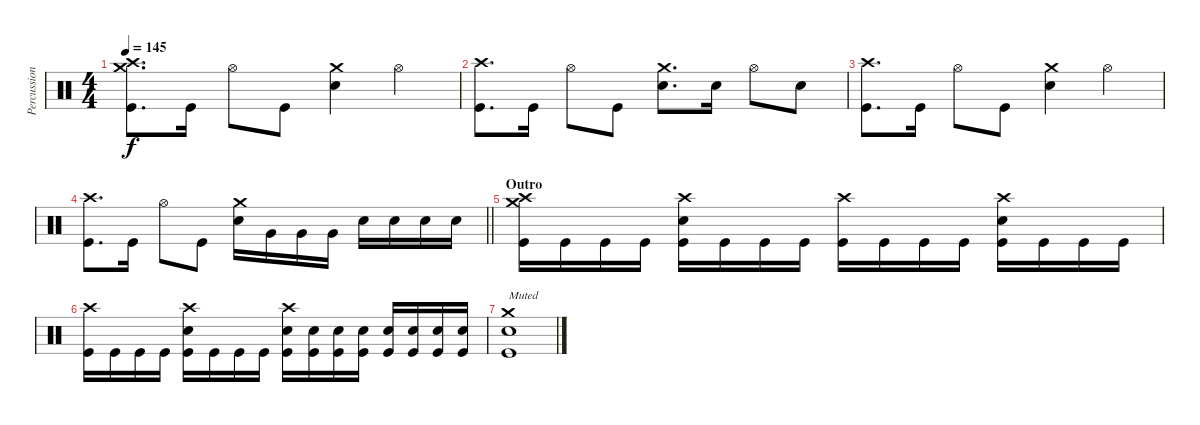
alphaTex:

\track ("Percussion" "Percussion") {instrument percussion}
\staff {score}
\articulation defaults
\ts (4 4)
\tempo 145
\clef neutral
\ks c
("Crash high (hit)" "Crash medium (hit)" "Kick (hit)").8{d dy f} "Kick (hit)".16 "Hi-Hat (open)".8 "Kick (hit)".8 ("Crash medium (hit)" "Electric Snare (hit)").4 "Hi-Hat (open)".4 |
("Crash high (hit)" "Kick (hit)").8{d} "Kick (hit)".16 "Hi-Hat (open)".8 "Kick (hit)".8 ("Crash medium (hit)" "Electric Snare (hit)").8{d} "Electric Snare (hit)".16 "Hi-Hat (open)".8 "Electric Snare (hit)".8 |
("Crash high (hit)" "Kick (hit)").8{d} "Kick (hit)".16 "Hi-Hat (open)".8 "Kick (hit)".8 ("Crash medium (hit)" "Electric Snare (hit)").4 "Hi-Hat (open)".4 |
\barLineRight lightlight
("Crash high (hit)" "Kick (hit)").8{d} "Kick (hit)".16 "Hi-Hat (open)".8 "Kick (hit)".8 ("Crash medium (hit)" "Electric Snare (hit)").16 "Very Low Tom (hit)".16 "Very Low Tom (hit)".16 "Very Low Tom (hit)".16 "Electric Snare (hit)".16 "Electric Snare (hit)".16 "Electric Snare (hit)".16 "Electric Snare (hit)".16 |
\section ("" "Outro")
("Crash medium (hit)" "Crash high (hit)" "Kick (hit)").16 "Kick (hit)".16 "Kick (hit)".16 "Kick (hit)".16 ("Crash high (hit)" "Electric Snare (hit)" "Kick (hit)").16 "Kick (hit)".16 "Kick (hit)".16 "Kick (hit)".16 ("Crash high (hit)" "Kick (hit)").16 "Kick (hit)".16 "Kick (hit)".16 "Kick (hit)".16 ("Crash high (hit)" "Electric Snare (hit)" "Kick (hit)").16 "Kick (hit)".16 "Kick (hit)".16 "Kick (hit)".16 |
("Crash high (hit)" "Kick (hit)").16 "Kick (hit)".16 "Kick (hit)".16 "Kick (hit)".16 ("Crash high (hit)" "Electric Snare (hit)" "Kick (hit)").16 "Kick (hit)".16 "Kick (hit)".16 "Kick (hit)".16 ("Crash high (hit)" "Electric Snare (hit)" "Kick (hit)").16 ("Electric Snare (hit)" "Kick (hit)").16 ("Electric Snare (hit)" "Kick (hit)").16 ("Electric Snare (hit)" "Kick (hit)").16 ("Electric Snare (hit)" "Kick (hit)").16 ("Electric Snare (hit)" "Kick (hit)").16 ("Electric Snare (hit)" "Kick (hit)").16 ("Electric Snare (hit)" "Kick (hit)").16 |
("Crash medium (hit)" "Electric Snare (hit)" "Kick (hit)").1{txt "Muted"}
